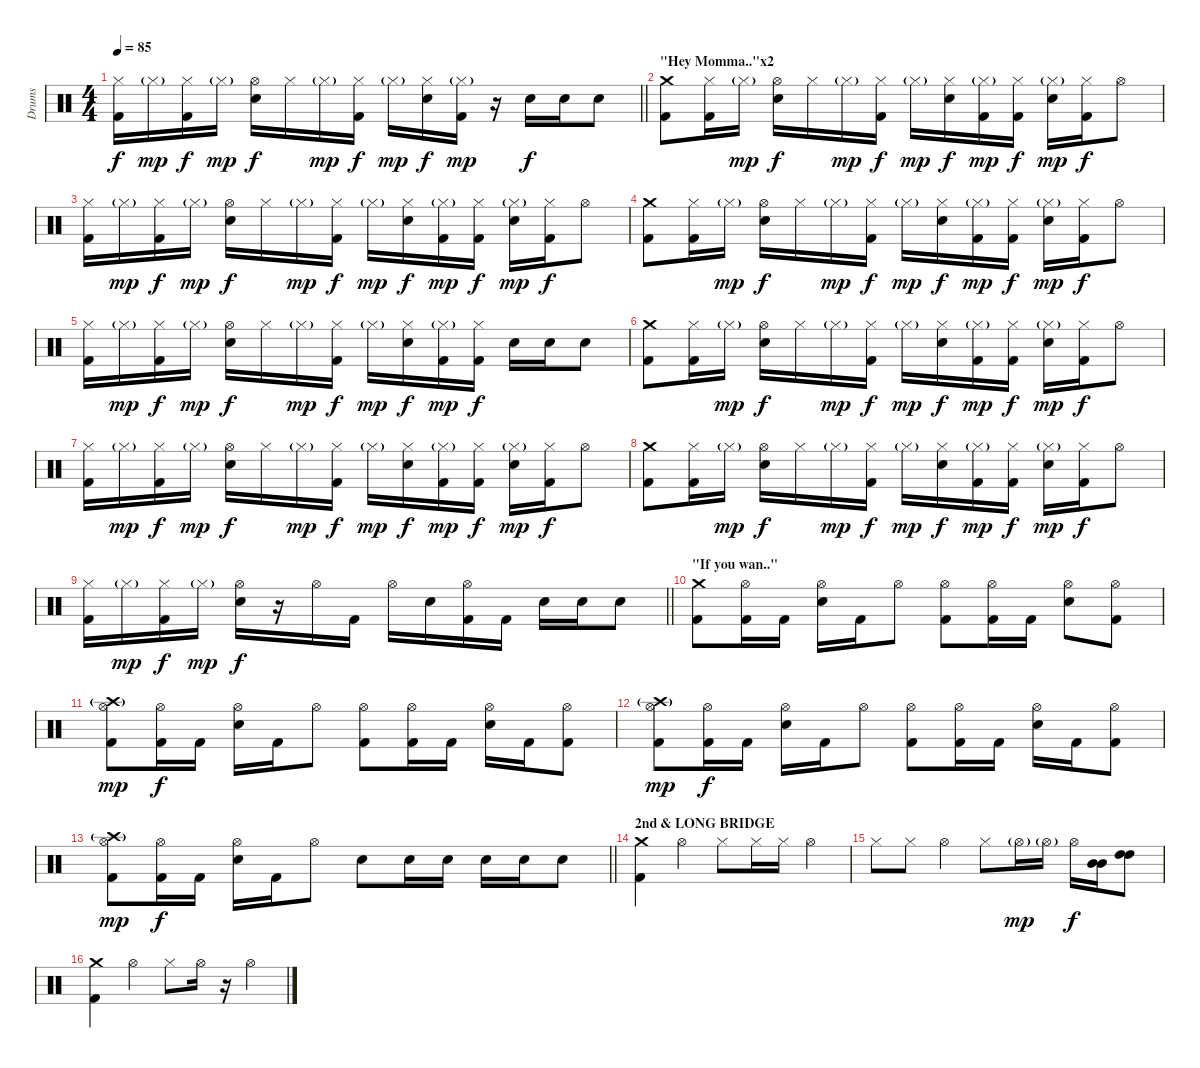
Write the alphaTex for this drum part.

\track ("Drums" "Drums") {instrument percussion}
\staff {score}
\articulation defaults
\ts (4 4)
\tempo 85
\clef neutral
\barLineRight lightlight
\ks c
("Hi-Hat (closed)" "Kick (hit) 2").16{dy f} "Hi-Hat (closed)"{g}.16{dy mp} ("Hi-Hat (closed)" "Kick (hit) 2").16{dy f} "Hi-Hat (closed)"{g}.16{dy mp} ("Hi-Hat (open)" "Electric Snare (hit)").16{dy f} "Hi-Hat (closed)".16 "Hi-Hat (closed)"{g}.16{dy mp} ("Hi-Hat (closed)" "Kick (hit) 2").16{dy f} "Hi-Hat (closed)"{g}.16{dy mp} ("Hi-Hat (closed)" "Electric Snare (hit)").16{dy f} ("Hi-Hat (closed)"{g} "Kick (hit) 2").16{dy mp} r.16 "Electric Snare (hit)".16{dy f} "Electric Snare (hit)".16 "Electric Snare (hit)".8 |
\section ("" "\"Hey Momma..\"x2")
("Crash medium (hit)" "Kick (hit) 2").8 ("Hi-Hat (closed)" "Kick (hit) 2").16 "Hi-Hat (closed)"{g}.16{dy mp} ("Hi-Hat (open)" "Electric Snare (hit)").16{dy f} "Hi-Hat (closed)".16 "Hi-Hat (closed)"{g}.16{dy mp} ("Hi-Hat (closed)" "Kick (hit) 2").16{dy f} "Hi-Hat (closed)"{g}.16{dy mp} ("Hi-Hat (closed)" "Electric Snare (hit)").16{dy f} ("Hi-Hat (closed)"{g} "Kick (hit) 2").16{dy mp} ("Hi-Hat (closed)" "Kick (hit) 2").16{dy f} ("Hi-Hat (closed)"{g} "Electric Snare (hit)").16{dy mp} ("Hi-Hat (closed)" "Kick (hit) 2").16{dy f} "Hi-Hat (open)".8 |
("Hi-Hat (closed)" "Kick (hit) 2").16 "Hi-Hat (closed)"{g}.16{dy mp} ("Hi-Hat (closed)" "Kick (hit) 2").16{dy f} "Hi-Hat (closed)"{g}.16{dy mp} ("Hi-Hat (open)" "Electric Snare (hit)").16{dy f} "Hi-Hat (closed)".16 "Hi-Hat (closed)"{g}.16{dy mp} ("Hi-Hat (closed)" "Kick (hit) 2").16{dy f} "Hi-Hat (closed)"{g}.16{dy mp} ("Hi-Hat (closed)" "Electric Snare (hit)").16{dy f} ("Hi-Hat (closed)"{g} "Kick (hit) 2").16{dy mp} ("Hi-Hat (closed)" "Kick (hit) 2").16{dy f} ("Hi-Hat (closed)"{g} "Electric Snare (hit)").16{dy mp} ("Hi-Hat (closed)" "Kick (hit) 2").16{dy f} "Hi-Hat (open)".8 |
("Crash medium (hit)" "Kick (hit) 2").8 ("Hi-Hat (closed)" "Kick (hit) 2").16 "Hi-Hat (closed)"{g}.16{dy mp} ("Hi-Hat (open)" "Electric Snare (hit)").16{dy f} "Hi-Hat (closed)".16 "Hi-Hat (closed)"{g}.16{dy mp} ("Hi-Hat (closed)" "Kick (hit) 2").16{dy f} "Hi-Hat (closed)"{g}.16{dy mp} ("Hi-Hat (closed)" "Electric Snare (hit)").16{dy f} ("Hi-Hat (closed)"{g} "Kick (hit) 2").16{dy mp} ("Hi-Hat (closed)" "Kick (hit) 2").16{dy f} ("Hi-Hat (closed)"{g} "Electric Snare (hit)").16{dy mp} ("Hi-Hat (closed)" "Kick (hit) 2").16{dy f} "Hi-Hat (open)".8 |
("Hi-Hat (closed)" "Kick (hit) 2").16 "Hi-Hat (closed)"{g}.16{dy mp} ("Hi-Hat (closed)" "Kick (hit) 2").16{dy f} "Hi-Hat (closed)"{g}.16{dy mp} ("Hi-Hat (open)" "Electric Snare (hit)").16{dy f} "Hi-Hat (closed)".16 "Hi-Hat (closed)"{g}.16{dy mp} ("Hi-Hat (closed)" "Kick (hit) 2").16{dy f} "Hi-Hat (closed)"{g}.16{dy mp} ("Hi-Hat (closed)" "Electric Snare (hit)").16{dy f} ("Hi-Hat (closed)"{g} "Kick (hit) 2").16{dy mp} ("Hi-Hat (closed)" "Kick (hit) 2").16{dy f} "Electric Snare (hit)".16 "Electric Snare (hit)".16 "Electric Snare (hit)".8 |
("Crash medium (hit)" "Kick (hit) 2").8 ("Hi-Hat (closed)" "Kick (hit) 2").16 "Hi-Hat (closed)"{g}.16{dy mp} ("Hi-Hat (open)" "Electric Snare (hit)").16{dy f} "Hi-Hat (closed)".16 "Hi-Hat (closed)"{g}.16{dy mp} ("Hi-Hat (closed)" "Kick (hit) 2").16{dy f} "Hi-Hat (closed)"{g}.16{dy mp} ("Hi-Hat (closed)" "Electric Snare (hit)").16{dy f} ("Hi-Hat (closed)"{g} "Kick (hit) 2").16{dy mp} ("Hi-Hat (closed)" "Kick (hit) 2").16{dy f} ("Hi-Hat (closed)"{g} "Electric Snare (hit)").16{dy mp} ("Hi-Hat (closed)" "Kick (hit) 2").16{dy f} "Hi-Hat (open)".8 |
("Hi-Hat (closed)" "Kick (hit) 2").16 "Hi-Hat (closed)"{g}.16{dy mp} ("Hi-Hat (closed)" "Kick (hit) 2").16{dy f} "Hi-Hat (closed)"{g}.16{dy mp} ("Hi-Hat (open)" "Electric Snare (hit)").16{dy f} "Hi-Hat (closed)".16 "Hi-Hat (closed)"{g}.16{dy mp} ("Hi-Hat (closed)" "Kick (hit) 2").16{dy f} "Hi-Hat (closed)"{g}.16{dy mp} ("Hi-Hat (closed)" "Electric Snare (hit)").16{dy f} ("Hi-Hat (closed)"{g} "Kick (hit) 2").16{dy mp} ("Hi-Hat (closed)" "Kick (hit) 2").16{dy f} ("Hi-Hat (closed)"{g} "Electric Snare (hit)").16{dy mp} ("Hi-Hat (closed)" "Kick (hit) 2").16{dy f} "Hi-Hat (open)".8 |
("Crash medium (hit)" "Kick (hit) 2").8 ("Hi-Hat (closed)" "Kick (hit) 2").16 "Hi-Hat (closed)"{g}.16{dy mp} ("Hi-Hat (open)" "Electric Snare (hit)").16{dy f} "Hi-Hat (closed)".16 "Hi-Hat (closed)"{g}.16{dy mp} ("Hi-Hat (closed)" "Kick (hit) 2").16{dy f} "Hi-Hat (closed)"{g}.16{dy mp} ("Hi-Hat (closed)" "Electric Snare (hit)").16{dy f} ("Hi-Hat (closed)"{g} "Kick (hit) 2").16{dy mp} ("Hi-Hat (closed)" "Kick (hit) 2").16{dy f} ("Hi-Hat (closed)"{g} "Electric Snare (hit)").16{dy mp} ("Hi-Hat (closed)" "Kick (hit) 2").16{dy f} "Hi-Hat (open)".8 |
\barLineRight lightlight
("Hi-Hat (closed)" "Kick (hit) 2").16 "Hi-Hat (closed)"{g}.16{dy mp} ("Hi-Hat (closed)" "Kick (hit) 2").16{dy f} "Hi-Hat (closed)"{g}.16{dy mp} ("Hi-Hat (open)" "Electric Snare (hit)").16{dy f} r.16 "Hi-Hat (open)".16 "Kick (hit) 2".16 "Hi-Hat (open)".16 "Electric Snare (hit)".16 ("Hi-Hat (open)" "Kick (hit) 2").16 "Kick (hit) 2".16 "Electric Snare (hit)".16 "Electric Snare (hit)".16 "Electric Snare (hit)".8 |
\section ("" "\"If you wan..\"")
("Crash medium (hit)" "Kick (hit) 2").8 ("Hi-Hat (open)" "Kick (hit) 2").16 "Kick (hit) 2".16 ("Hi-Hat (open)" "Electric Snare (hit)").16 "Kick (hit) 2".16 "Hi-Hat (open)".8 ("Hi-Hat (open)" "Kick (hit) 2").8 ("Hi-Hat (open)" "Kick (hit) 2").16 "Kick (hit) 2".16 ("Hi-Hat (open)" "Electric Snare (hit)").8 ("Hi-Hat (open)" "Kick (hit) 2").8 |
("Crash high (hit)"{g} "Hi-Hat (open)" "Kick (hit) 2").8{dy mp} ("Hi-Hat (open)" "Kick (hit) 2").16{dy f} "Kick (hit) 2".16 ("Hi-Hat (open)" "Electric Snare (hit)").16 "Kick (hit) 2".16 "Hi-Hat (open)".8 ("Hi-Hat (open)" "Kick (hit) 2").8 ("Hi-Hat (open)" "Kick (hit) 2").16 "Kick (hit) 2".16 ("Hi-Hat (open)" "Electric Snare (hit)").16 "Kick (hit) 2".16 ("Hi-Hat (open)" "Kick (hit) 2").8 |
("Crash high (hit)"{g} "Hi-Hat (open)" "Kick (hit) 2").8{dy mp} ("Hi-Hat (open)" "Kick (hit) 2").16{dy f} "Kick (hit) 2".16 ("Hi-Hat (open)" "Electric Snare (hit)").16 "Kick (hit) 2".16 "Hi-Hat (open)".8 ("Hi-Hat (open)" "Kick (hit) 2").8 ("Hi-Hat (open)" "Kick (hit) 2").16 "Kick (hit) 2".16 ("Hi-Hat (open)" "Electric Snare (hit)").16 "Kick (hit) 2".16 ("Hi-Hat (open)" "Kick (hit) 2").8 |
\barLineRight lightlight
("Crash high (hit)"{g} "Hi-Hat (open)" "Kick (hit) 2").8{dy mp} ("Hi-Hat (open)" "Kick (hit) 2").16{dy f} "Kick (hit) 2".16 ("Hi-Hat (open)" "Electric Snare (hit)").16 "Kick (hit) 2".16 "Hi-Hat (open)".8 "Electric Snare (hit)".8 "Electric Snare (hit)".16 "Electric Snare (hit)".16 "Electric Snare (hit)".16 "Electric Snare (hit)".16 "Electric Snare (hit)".8 |
\section ("" "2nd & LONG BRIDGE")
("Crash medium (hit)" "Kick (hit) 2").4 "Hi-Hat (open)".4 "Hi-Hat (closed)".8 "Hi-Hat (closed)".16 "Hi-Hat (closed)".16 "Hi-Hat (open)".4 |
"Hi-Hat (closed)".8 "Hi-Hat (closed)".8 "Hi-Hat (open)".4 "Hi-Hat (closed)".8 "Hi-Hat (open)"{g}.16{dy mp} "Hi-Hat (open)"{g}.16 "Hi-Hat (open)".16{dy f} ("Mid Tom (hit)" "Mid Tom (hit)").16 ("High Tom (hit)" "High Tom (hit)").8 |
("Crash medium (hit)" "Kick (hit) 2").4 "Hi-Hat (open)".4 "Hi-Hat (closed)".8 "Hi-Hat (open)".16 r.16 "Hi-Hat (open)".4
